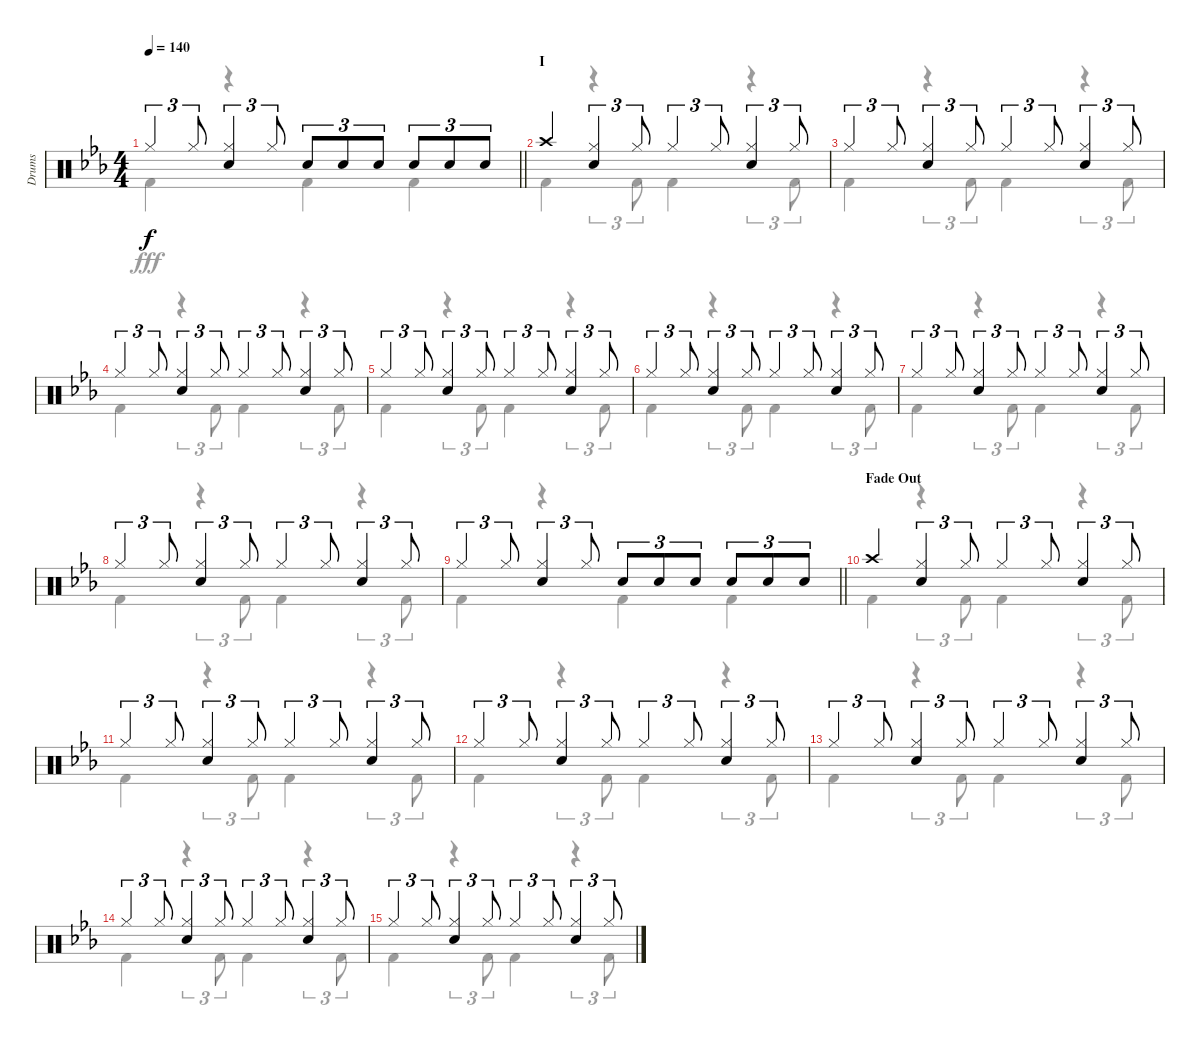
\track ("Drums" "Drums") {instrument percussion}
\staff {score}
\articulation defaults
\voice
\ts (4 4)
\tempo 140
\clef neutral
\barLineRight lightlight
\ks eb "Hi-Hat (closed)".4{tu (3 2) dy f} "Hi-Hat (closed)".8{tu (3 2)}
("Hi-Hat (closed)" "Snare (hit) 2").4{tu (3 2)} "Hi-Hat (closed)".8{tu (3 2)} "Snare (hit) 2".8{tu (3 2)} "Snare (hit) 2".8{tu (3 2)} "Snare (hit) 2".8{tu (3 2)} "Snare (hit) 2".8{tu (3 2)} "Snare (hit) 2".8{tu (3 2)} "Snare (hit) 2".8{tu (3 2)} |
\section ("" "I")
"Crash high (hit)".4 ("Hi-Hat (closed)" "Snare (hit) 2").4{tu (3 2)} "Hi-Hat (closed)".8{tu (3 2)} "Hi-Hat (closed)".4{tu (3 2)} "Hi-Hat (closed)".8{tu (3 2)} ("Hi-Hat (closed)" "Snare (hit) 2").4{tu (3 2)} "Hi-Hat (closed)".8{tu (3 2)} |
"Hi-Hat (closed)".4{tu (3 2)} "Hi-Hat (closed)".8{tu (3 2)} ("Hi-Hat (closed)" "Snare (hit) 2").4{tu (3 2)} "Hi-Hat (closed)".8{tu (3 2)} "Hi-Hat (closed)".4{tu (3 2)} "Hi-Hat (closed)".8{tu (3 2)} ("Hi-Hat (closed)" "Snare (hit) 2").4{tu (3 2)} "Hi-Hat (closed)".8{tu (3 2)} |
"Hi-Hat (closed)".4{tu (3 2)} "Hi-Hat (closed)".8{tu (3 2)} ("Hi-Hat (closed)" "Snare (hit) 2").4{tu (3 2)} "Hi-Hat (closed)".8{tu (3 2)} "Hi-Hat (closed)".4{tu (3 2)} "Hi-Hat (closed)".8{tu (3 2)} ("Hi-Hat (closed)" "Snare (hit) 2").4{tu (3 2)} "Hi-Hat (closed)".8{tu (3 2)} |
"Hi-Hat (closed)".4{tu (3 2)} "Hi-Hat (closed)".8{tu (3 2)} ("Hi-Hat (closed)" "Snare (hit) 2").4{tu (3 2)} "Hi-Hat (closed)".8{tu (3 2)} "Hi-Hat (closed)".4{tu (3 2)} "Hi-Hat (closed)".8{tu (3 2)} ("Hi-Hat (closed)" "Snare (hit) 2").4{tu (3 2)} "Hi-Hat (closed)".8{tu (3 2)} |
"Hi-Hat (closed)".4{tu (3 2)} "Hi-Hat (closed)".8{tu (3 2)} ("Hi-Hat (closed)" "Snare (hit) 2").4{tu (3 2)} "Hi-Hat (closed)".8{tu (3 2)} "Hi-Hat (closed)".4{tu (3 2)} "Hi-Hat (closed)".8{tu (3 2)} ("Hi-Hat (closed)" "Snare (hit) 2").4{tu (3 2)} "Hi-Hat (closed)".8{tu (3 2)} |
"Hi-Hat (closed)".4{tu (3 2)} "Hi-Hat (closed)".8{tu (3 2)} ("Hi-Hat (closed)" "Snare (hit) 2").4{tu (3 2)} "Hi-Hat (closed)".8{tu (3 2)} "Hi-Hat (closed)".4{tu (3 2)} "Hi-Hat (closed)".8{tu (3 2)} ("Hi-Hat (closed)" "Snare (hit) 2").4{tu (3 2)} "Hi-Hat (closed)".8{tu (3 2)} |
"Hi-Hat (closed)".4{tu (3 2)} "Hi-Hat (closed)".8{tu (3 2)} ("Hi-Hat (closed)" "Snare (hit) 2").4{tu (3 2)} "Hi-Hat (closed)".8{tu (3 2)} "Hi-Hat (closed)".4{tu (3 2)} "Hi-Hat (closed)".8{tu (3 2)} ("Hi-Hat (closed)" "Snare (hit) 2").4{tu (3 2)} "Hi-Hat (closed)".8{tu (3 2)} |
\barLineRight lightlight "Hi-Hat (closed)".4{tu (3 2)} "Hi-Hat (closed)".8{tu (3 2)}
("Hi-Hat (closed)" "Snare (hit) 2").4{tu (3 2)} "Hi-Hat (closed)".8{tu (3 2)} "Snare (hit) 2".8{tu (3 2)} "Snare (hit) 2".8{tu (3 2)} "Snare (hit) 2".8{tu (3 2)} "Snare (hit) 2".8{tu (3 2)} "Snare (hit) 2".8{tu (3 2)} "Snare (hit) 2".8{tu (3 2)} |
\section ("" "Fade Out")
"Crash high (hit)".4 ("Hi-Hat (closed)" "Snare (hit) 2").4{tu (3 2)} "Hi-Hat (closed)".8{tu (3 2)} "Hi-Hat (closed)".4{tu (3 2)} "Hi-Hat (closed)".8{tu (3 2)} ("Hi-Hat (closed)" "Snare (hit) 2").4{tu (3 2)} "Hi-Hat (closed)".8{tu (3 2)} |
"Hi-Hat (closed)".4{tu (3 2)} "Hi-Hat (closed)".8{tu (3 2)} ("Hi-Hat (closed)" "Snare (hit) 2").4{tu (3 2)} "Hi-Hat (closed)".8{tu (3 2)} "Hi-Hat (closed)".4{tu (3 2)} "Hi-Hat (closed)".8{tu (3 2)} ("Hi-Hat (closed)" "Snare (hit) 2").4{tu (3 2)} "Hi-Hat (closed)".8{tu (3 2)} |
"Hi-Hat (closed)".4{tu (3 2)} "Hi-Hat (closed)".8{tu (3 2)} ("Hi-Hat (closed)" "Snare (hit) 2").4{tu (3 2)} "Hi-Hat (closed)".8{tu (3 2)} "Hi-Hat (closed)".4{tu (3 2)} "Hi-Hat (closed)".8{tu (3 2)} ("Hi-Hat (closed)" "Snare (hit) 2").4{tu (3 2)} "Hi-Hat (closed)".8{tu (3 2)} |
"Hi-Hat (closed)".4{tu (3 2)} "Hi-Hat (closed)".8{tu (3 2)} ("Hi-Hat (closed)" "Snare (hit) 2").4{tu (3 2)} "Hi-Hat (closed)".8{tu (3 2)} "Hi-Hat (closed)".4{tu (3 2)} "Hi-Hat (closed)".8{tu (3 2)} ("Hi-Hat (closed)" "Snare (hit) 2").4{tu (3 2)} "Hi-Hat (closed)".8{tu (3 2)} |
"Hi-Hat (closed)".4{tu (3 2)} "Hi-Hat (closed)".8{tu (3 2)} ("Hi-Hat (closed)" "Snare (hit) 2").4{tu (3 2)} "Hi-Hat (closed)".8{tu (3 2)} "Hi-Hat (closed)".4{tu (3 2)} "Hi-Hat (closed)".8{tu (3 2)} ("Hi-Hat (closed)" "Snare (hit) 2").4{tu (3 2)} "Hi-Hat (closed)".8{tu (3 2)} |
"Hi-Hat (closed)".4{tu (3 2)} "Hi-Hat (closed)".8{tu (3 2)} ("Hi-Hat (closed)" "Snare (hit) 2").4{tu (3 2)} "Hi-Hat (closed)".8{tu (3 2)} "Hi-Hat (closed)".4{tu (3 2)} "Hi-Hat (closed)".8{tu (3 2)} ("Hi-Hat (closed)" "Snare (hit) 2").4{tu (3 2)} "Hi-Hat (closed)".8{tu (3 2)}
\voice
\clef neutral
\ottava regular
\simile none
\barLineRight lightlight
\ks eb "Kick (hit) 2".4{dy fff}
r.4 "Kick (hit) 2".4 "Kick (hit) 2".4 |
"Kick (hit) 2".4 r.4{tu (3 2)} "Kick (hit) 2".8{tu (3 2)} "Kick (hit) 2".4 r.4{tu (3 2)} "Kick (hit) 2".8{tu (3 2)} |
"Kick (hit) 2".4 r.4{tu (3 2)} "Kick (hit) 2".8{tu (3 2)} "Kick (hit) 2".4 r.4{tu (3 2)} "Kick (hit) 2".8{tu (3 2)} |
"Kick (hit) 2".4 r.4{tu (3 2)} "Kick (hit) 2".8{tu (3 2)} "Kick (hit) 2".4 r.4{tu (3 2)} "Kick (hit) 2".8{tu (3 2)} |
"Kick (hit) 2".4 r.4{tu (3 2)} "Kick (hit) 2".8{tu (3 2)} "Kick (hit) 2".4 r.4{tu (3 2)} "Kick (hit) 2".8{tu (3 2)} |
"Kick (hit) 2".4 r.4{tu (3 2)} "Kick (hit) 2".8{tu (3 2)} "Kick (hit) 2".4 r.4{tu (3 2)} "Kick (hit) 2".8{tu (3 2)} |
"Kick (hit) 2".4 r.4{tu (3 2)} "Kick (hit) 2".8{tu (3 2)} "Kick (hit) 2".4 r.4{tu (3 2)} "Kick (hit) 2".8{tu (3 2)} |
"Kick (hit) 2".4 r.4{tu (3 2)} "Kick (hit) 2".8{tu (3 2)} "Kick (hit) 2".4 r.4{tu (3 2)} "Kick (hit) 2".8{tu (3 2)} |
\barLineRight lightlight "Kick (hit) 2".4
r.4 "Kick (hit) 2".4 "Kick (hit) 2".4 |
"Kick (hit) 2".4 r.4{tu (3 2)} "Kick (hit) 2".8{tu (3 2)} "Kick (hit) 2".4 r.4{tu (3 2)} "Kick (hit) 2".8{tu (3 2)} |
"Kick (hit) 2".4 r.4{tu (3 2)} "Kick (hit) 2".8{tu (3 2)} "Kick (hit) 2".4 r.4{tu (3 2)} "Kick (hit) 2".8{tu (3 2)} |
"Kick (hit) 2".4 r.4{tu (3 2)} "Kick (hit) 2".8{tu (3 2)} "Kick (hit) 2".4 r.4{tu (3 2)} "Kick (hit) 2".8{tu (3 2)} |
"Kick (hit) 2".4 r.4{tu (3 2)} "Kick (hit) 2".8{tu (3 2)} "Kick (hit) 2".4 r.4{tu (3 2)} "Kick (hit) 2".8{tu (3 2)} |
"Kick (hit) 2".4 r.4{tu (3 2)} "Kick (hit) 2".8{tu (3 2)} "Kick (hit) 2".4 r.4{tu (3 2)} "Kick (hit) 2".8{tu (3 2)} |
"Kick (hit) 2".4 r.4{tu (3 2)} "Kick (hit) 2".8{tu (3 2)} "Kick (hit) 2".4 r.4{tu (3 2)} "Kick (hit) 2".8{tu (3 2)}
